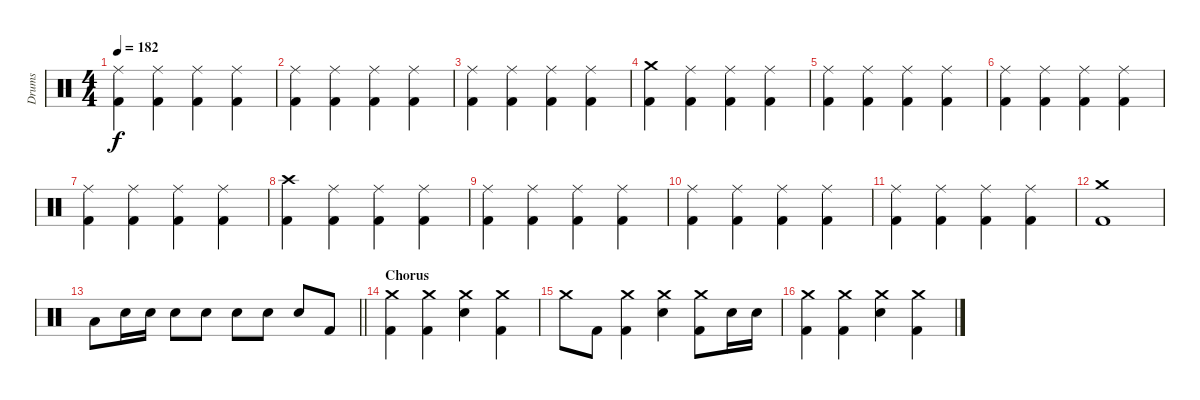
\track ("Drums" "Drums") {instrument percussion}
\staff {score}
\articulation defaults
\ts (4 4)
\tempo 182
\clef neutral
\ks c
("Ride (middle)" "Kick (hit) 2").4{dy f} ("Ride (middle)" "Kick (hit) 2").4 ("Ride (middle)" "Kick (hit) 2").4 ("Ride (middle)" "Kick (hit) 2").4 |
("Ride (middle)" "Kick (hit) 2").4 ("Ride (middle)" "Kick (hit) 2").4 ("Ride (middle)" "Kick (hit) 2").4 ("Ride (middle)" "Kick (hit) 2").4 |
("Ride (middle)" "Kick (hit) 2").4 ("Ride (middle)" "Kick (hit) 2").4 ("Ride (middle)" "Kick (hit) 2").4 ("Ride (middle)" "Kick (hit) 2").4 |
("Crash medium (hit)" "Kick (hit) 2").4 ("Ride (middle)" "Kick (hit) 2").4 ("Ride (middle)" "Kick (hit) 2").4 ("Ride (middle)" "Kick (hit) 2").4 |
("Ride (middle)" "Kick (hit) 2").4 ("Ride (middle)" "Kick (hit) 2").4 ("Ride (middle)" "Kick (hit) 2").4 ("Ride (middle)" "Kick (hit) 2").4 |
("Ride (middle)" "Kick (hit) 2").4 ("Ride (middle)" "Kick (hit) 2").4 ("Ride (middle)" "Kick (hit) 2").4 ("Ride (middle)" "Kick (hit) 2").4 |
("Ride (middle)" "Kick (hit) 2").4 ("Ride (middle)" "Kick (hit) 2").4 ("Ride (middle)" "Kick (hit) 2").4 ("Ride (middle)" "Kick (hit) 2").4 |
("Crash high (hit)" "Kick (hit) 2").4 ("Ride (middle)" "Kick (hit) 2").4 ("Ride (middle)" "Kick (hit) 2").4 ("Ride (middle)" "Kick (hit) 2").4 |
("Ride (middle)" "Kick (hit) 2").4 ("Ride (middle)" "Kick (hit) 2").4 ("Ride (middle)" "Kick (hit) 2").4 ("Ride (middle)" "Kick (hit) 2").4 |
("Ride (middle)" "Kick (hit) 2").4 ("Ride (middle)" "Kick (hit) 2").4 ("Ride (middle)" "Kick (hit) 2").4 ("Ride (middle)" "Kick (hit) 2").4 |
("Ride (middle)" "Kick (hit) 2").4 ("Ride (middle)" "Kick (hit) 2").4 ("Ride (middle)" "Kick (hit) 2").4 ("Ride (middle)" "Kick (hit) 2").4 |
("Crash medium (hit)" "Kick (hit) 2").1 |
\barLineRight lightlight "Low Tom (hit)".8 "Electric Snare (hit)".16 "Electric Snare (hit)".16 "Electric Snare (hit)".8 "Electric Snare (hit)".8 "Electric Snare (hit)".8 "Electric Snare (hit)".8 "Electric Snare (hit)".8 "Kick (hit) 2".8
|
\section ("" "Chorus")
("Crash medium (hit)" "Kick (hit) 2").4 ("Crash medium (hit)" "Kick (hit) 2").4 ("Crash medium (hit)" "Electric Snare (hit)").4 ("Crash medium (hit)" "Kick (hit) 2").4 |
"Crash medium (hit)".8 "Kick (hit) 2".8 ("Crash medium (hit)" "Kick (hit) 2").4 ("Crash medium (hit)" "Electric Snare (hit)").4 ("Crash medium (hit)" "Kick (hit) 2").8 "Electric Snare (hit)".16 "Electric Snare (hit)".16 |
("Crash medium (hit)" "Kick (hit) 2").4 ("Crash medium (hit)" "Kick (hit) 2").4 ("Crash medium (hit)" "Electric Snare (hit)").4 ("Crash medium (hit)" "Kick (hit) 2").4
